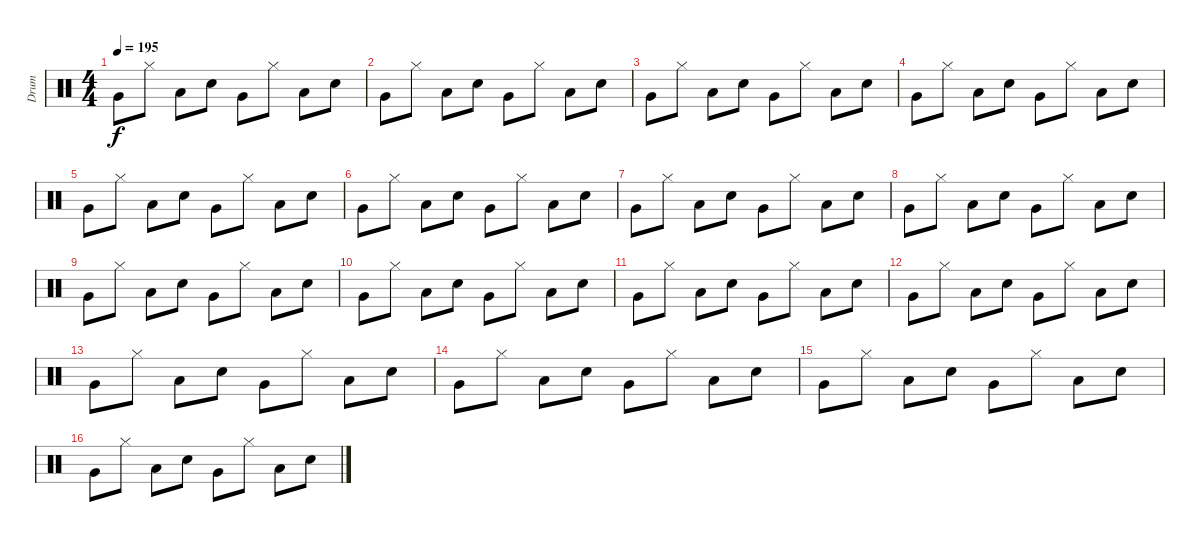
\track ("Drum" "Drum") {instrument percussion}
\staff {score}
\articulation defaults
\ts (4 4)
\tempo 195
\clef neutral
\ks c "Very Low Tom (hit)".8{dy f} "Hi-Hat (closed)".8 "Low Floor Tom (hit)".8 "Electric Snare (hit)".8 "Very Low Tom (hit)".8 "Hi-Hat (closed)".8 "Low Floor Tom (hit)".8 "Electric Snare (hit)".8
|
"Very Low Tom (hit)".8 "Hi-Hat (closed)".8 "Low Floor Tom (hit)".8 "Electric Snare (hit)".8 "Very Low Tom (hit)".8 "Hi-Hat (closed)".8 "Low Floor Tom (hit)".8 "Electric Snare (hit)".8 |
"Very Low Tom (hit)".8 "Hi-Hat (closed)".8 "Low Floor Tom (hit)".8 "Electric Snare (hit)".8 "Very Low Tom (hit)".8 "Hi-Hat (closed)".8 "Low Floor Tom (hit)".8 "Electric Snare (hit)".8 |
"Very Low Tom (hit)".8 "Hi-Hat (closed)".8 "Low Floor Tom (hit)".8 "Electric Snare (hit)".8 "Very Low Tom (hit)".8 "Hi-Hat (closed)".8 "Low Floor Tom (hit)".8 "Electric Snare (hit)".8 |
"Very Low Tom (hit)".8 "Hi-Hat (closed)".8 "Low Floor Tom (hit)".8 "Electric Snare (hit)".8 "Very Low Tom (hit)".8 "Hi-Hat (closed)".8 "Low Floor Tom (hit)".8 "Electric Snare (hit)".8 |
"Very Low Tom (hit)".8 "Hi-Hat (closed)".8 "Low Floor Tom (hit)".8 "Electric Snare (hit)".8 "Very Low Tom (hit)".8 "Hi-Hat (closed)".8 "Low Floor Tom (hit)".8 "Electric Snare (hit)".8 |
"Very Low Tom (hit)".8 "Hi-Hat (closed)".8 "Low Floor Tom (hit)".8 "Electric Snare (hit)".8 "Very Low Tom (hit)".8 "Hi-Hat (closed)".8 "Low Floor Tom (hit)".8 "Electric Snare (hit)".8 |
"Very Low Tom (hit)".8 "Hi-Hat (closed)".8 "Low Floor Tom (hit)".8 "Electric Snare (hit)".8 "Very Low Tom (hit)".8 "Hi-Hat (closed)".8 "Low Floor Tom (hit)".8 "Electric Snare (hit)".8 |
"Very Low Tom (hit)".8 "Hi-Hat (closed)".8 "Low Floor Tom (hit)".8 "Electric Snare (hit)".8 "Very Low Tom (hit)".8 "Hi-Hat (closed)".8 "Low Floor Tom (hit)".8 "Electric Snare (hit)".8 |
"Very Low Tom (hit)".8 "Hi-Hat (closed)".8 "Low Floor Tom (hit)".8 "Electric Snare (hit)".8 "Very Low Tom (hit)".8 "Hi-Hat (closed)".8 "Low Floor Tom (hit)".8 "Electric Snare (hit)".8 |
"Very Low Tom (hit)".8 "Hi-Hat (closed)".8 "Low Floor Tom (hit)".8 "Electric Snare (hit)".8 "Very Low Tom (hit)".8 "Hi-Hat (closed)".8 "Low Floor Tom (hit)".8 "Electric Snare (hit)".8 |
"Very Low Tom (hit)".8 "Hi-Hat (closed)".8 "Low Floor Tom (hit)".8 "Electric Snare (hit)".8 "Very Low Tom (hit)".8 "Hi-Hat (closed)".8 "Low Floor Tom (hit)".8 "Electric Snare (hit)".8 |
"Very Low Tom (hit)".8 "Hi-Hat (closed)".8 "Low Floor Tom (hit)".8 "Electric Snare (hit)".8 "Very Low Tom (hit)".8 "Hi-Hat (closed)".8 "Low Floor Tom (hit)".8 "Electric Snare (hit)".8 |
"Very Low Tom (hit)".8 "Hi-Hat (closed)".8 "Low Floor Tom (hit)".8 "Electric Snare (hit)".8 "Very Low Tom (hit)".8 "Hi-Hat (closed)".8 "Low Floor Tom (hit)".8 "Electric Snare (hit)".8 |
"Very Low Tom (hit)".8 "Hi-Hat (closed)".8 "Low Floor Tom (hit)".8 "Electric Snare (hit)".8 "Very Low Tom (hit)".8 "Hi-Hat (closed)".8 "Low Floor Tom (hit)".8 "Electric Snare (hit)".8 |
"Very Low Tom (hit)".8 "Hi-Hat (closed)".8 "Low Floor Tom (hit)".8 "Electric Snare (hit)".8 "Very Low Tom (hit)".8 "Hi-Hat (closed)".8 "Low Floor Tom (hit)".8 "Electric Snare (hit)".8
